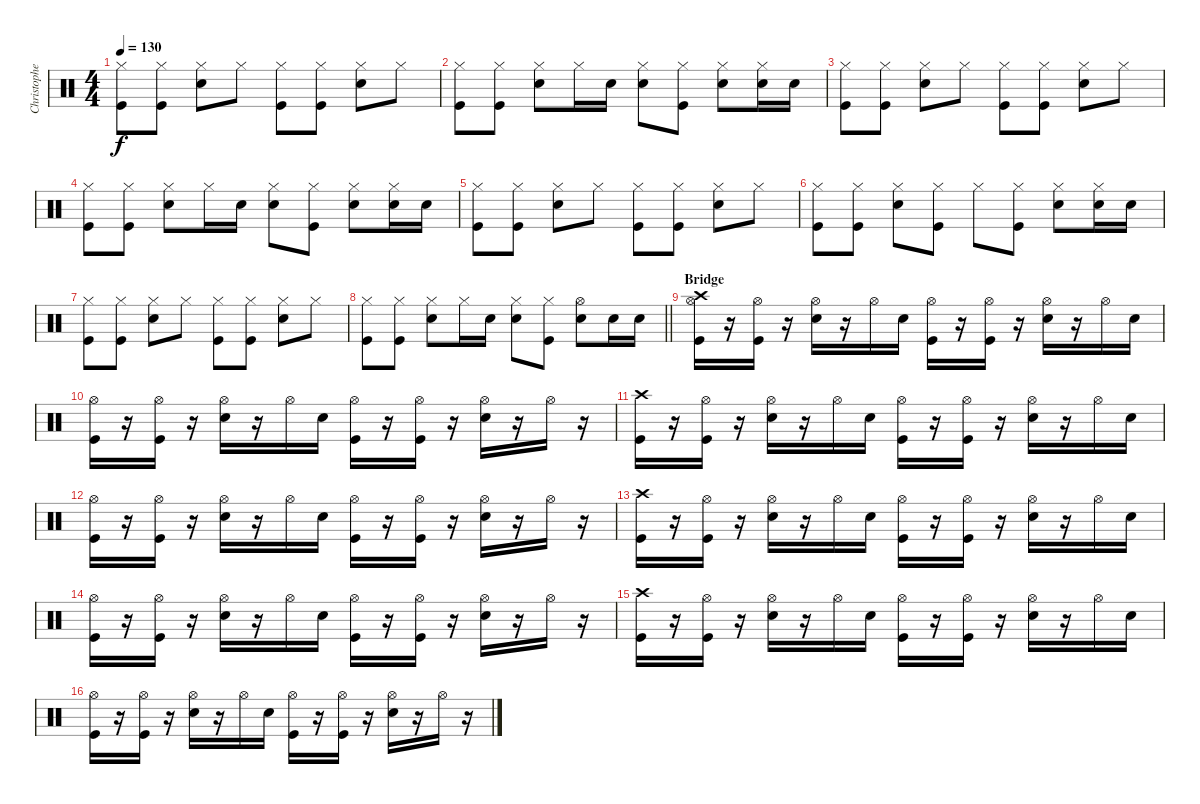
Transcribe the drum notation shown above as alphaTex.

\track ("Christopher - Drums" "Christophe") {instrument percussion}
\staff {score}
\articulation defaults
\ts (4 4)
\tempo 130
\clef neutral
\ks c
("Hi-Hat (closed)" "Kick (hit)").8{dy f} ("Hi-Hat (closed)" "Kick (hit)").8 ("Hi-Hat (closed)" "Snare (hit) 2").8 "Hi-Hat (closed)".8 ("Hi-Hat (closed)" "Kick (hit)").8 ("Hi-Hat (closed)" "Kick (hit)").8 ("Hi-Hat (closed)" "Snare (hit) 2").8 "Hi-Hat (closed)".8 |
("Hi-Hat (closed)" "Kick (hit)").8 ("Hi-Hat (closed)" "Kick (hit)").8 ("Hi-Hat (closed)" "Snare (hit) 2").8 "Hi-Hat (closed)".16 "Snare (hit) 2".16 ("Hi-Hat (closed)" "Snare (hit) 2").8 ("Hi-Hat (closed)" "Kick (hit)").8 ("Hi-Hat (closed)" "Snare (hit) 2").8 ("Hi-Hat (closed)" "Snare (hit) 2").16 "Snare (hit) 2".16 |
("Hi-Hat (closed)" "Kick (hit)").8 ("Hi-Hat (closed)" "Kick (hit)").8 ("Hi-Hat (closed)" "Snare (hit) 2").8 "Hi-Hat (closed)".8 ("Hi-Hat (closed)" "Kick (hit)").8 ("Hi-Hat (closed)" "Kick (hit)").8 ("Hi-Hat (closed)" "Snare (hit) 2").8 "Hi-Hat (closed)".8 |
("Hi-Hat (closed)" "Kick (hit)").8 ("Hi-Hat (closed)" "Kick (hit)").8 ("Hi-Hat (closed)" "Snare (hit) 2").8 "Hi-Hat (closed)".16 "Snare (hit) 2".16 ("Hi-Hat (closed)" "Snare (hit) 2").8 ("Hi-Hat (closed)" "Kick (hit)").8 ("Hi-Hat (closed)" "Snare (hit) 2").8 ("Hi-Hat (closed)" "Snare (hit) 2").16 "Snare (hit) 2".16 |
("Hi-Hat (closed)" "Kick (hit)").8 ("Hi-Hat (closed)" "Kick (hit)").8 ("Hi-Hat (closed)" "Snare (hit) 2").8 "Hi-Hat (closed)".8 ("Hi-Hat (closed)" "Kick (hit)").8 ("Hi-Hat (closed)" "Kick (hit)").8 ("Hi-Hat (closed)" "Snare (hit) 2").8 "Hi-Hat (closed)".8 |
("Hi-Hat (closed)" "Kick (hit)").8 ("Hi-Hat (closed)" "Kick (hit)").8 ("Hi-Hat (closed)" "Snare (hit) 2").8 ("Hi-Hat (closed)" "Kick (hit)").8 "Hi-Hat (closed)".8 ("Hi-Hat (closed)" "Kick (hit)").8 ("Hi-Hat (closed)" "Snare (hit) 2").8 ("Hi-Hat (closed)" "Snare (hit) 2").16 "Snare (hit) 2".16 |
("Hi-Hat (closed)" "Kick (hit)").8 ("Hi-Hat (closed)" "Kick (hit)").8 ("Hi-Hat (closed)" "Snare (hit) 2").8 "Hi-Hat (closed)".8 ("Hi-Hat (closed)" "Kick (hit)").8 ("Hi-Hat (closed)" "Kick (hit)").8 ("Hi-Hat (closed)" "Snare (hit) 2").8 "Hi-Hat (closed)".8 |
\barLineRight lightlight
("Hi-Hat (closed)" "Kick (hit)").8 ("Hi-Hat (closed)" "Kick (hit)").8 ("Hi-Hat (closed)" "Snare (hit) 2").8 "Hi-Hat (closed)".16 "Snare (hit) 2".16 ("Hi-Hat (closed)" "Snare (hit) 2").8 ("Hi-Hat (closed)" "Kick (hit)").8 ("Hi-Hat (open)" "Snare (hit) 2").8 "Snare (hit) 2".16 "Snare (hit) 2".16 |
\section ("" "Bridge")
("Crash high (hit)" "Hi-Hat (open)" "Kick (hit)").16 r.16 ("Hi-Hat (open)" "Kick (hit)").16 r.16 ("Hi-Hat (open)" "Snare (hit) 2").16 r.16 "Hi-Hat (open)".16 "Snare (hit) 2".16 ("Hi-Hat (open)" "Kick (hit)").16 r.16 ("Hi-Hat (open)" "Kick (hit)").16 r.16 ("Hi-Hat (open)" "Snare (hit) 2").16 r.16 "Hi-Hat (open)".16 "Snare (hit) 2".16 |
("Hi-Hat (open)" "Kick (hit)").16 r.16 ("Hi-Hat (open)" "Kick (hit)").16 r.16 ("Hi-Hat (open)" "Snare (hit) 2").16 r.16 "Hi-Hat (open)".16 "Snare (hit) 2".16 ("Hi-Hat (open)" "Kick (hit)").16 r.16 ("Hi-Hat (open)" "Kick (hit)").16 r.16 ("Hi-Hat (open)" "Snare (hit) 2").16 r.16 "Hi-Hat (open)".16 r.16 |
("Crash high (hit)" "Kick (hit)").16 r.16 ("Hi-Hat (open)" "Kick (hit)").16 r.16 ("Hi-Hat (open)" "Snare (hit) 2").16 r.16 "Hi-Hat (open)".16 "Snare (hit) 2".16 ("Hi-Hat (open)" "Kick (hit)").16 r.16 ("Hi-Hat (open)" "Kick (hit)").16 r.16 ("Hi-Hat (open)" "Snare (hit) 2").16 r.16 "Hi-Hat (open)".16 "Snare (hit) 2".16 |
("Hi-Hat (open)" "Kick (hit)").16 r.16 ("Hi-Hat (open)" "Kick (hit)").16 r.16 ("Hi-Hat (open)" "Snare (hit) 2").16 r.16 "Hi-Hat (open)".16 "Snare (hit) 2".16 ("Hi-Hat (open)" "Kick (hit)").16 r.16 ("Hi-Hat (open)" "Kick (hit)").16 r.16 ("Hi-Hat (open)" "Snare (hit) 2").16 r.16 "Hi-Hat (open)".16 r.16 |
("Crash high (hit)" "Kick (hit)").16 r.16 ("Hi-Hat (open)" "Kick (hit)").16 r.16 ("Hi-Hat (open)" "Snare (hit) 2").16 r.16 "Hi-Hat (open)".16 "Snare (hit) 2".16 ("Hi-Hat (open)" "Kick (hit)").16 r.16 ("Hi-Hat (open)" "Kick (hit)").16 r.16 ("Hi-Hat (open)" "Snare (hit) 2").16 r.16 "Hi-Hat (open)".16 "Snare (hit) 2".16 |
("Hi-Hat (open)" "Kick (hit)").16 r.16 ("Hi-Hat (open)" "Kick (hit)").16 r.16 ("Hi-Hat (open)" "Snare (hit) 2").16 r.16 "Hi-Hat (open)".16 "Snare (hit) 2".16 ("Hi-Hat (open)" "Kick (hit)").16 r.16 ("Hi-Hat (open)" "Kick (hit)").16 r.16 ("Hi-Hat (open)" "Snare (hit) 2").16 r.16 "Hi-Hat (open)".16 r.16 |
("Crash high (hit)" "Kick (hit)").16 r.16 ("Hi-Hat (open)" "Kick (hit)").16 r.16 ("Hi-Hat (open)" "Snare (hit) 2").16 r.16 "Hi-Hat (open)".16 "Snare (hit) 2".16 ("Hi-Hat (open)" "Kick (hit)").16 r.16 ("Hi-Hat (open)" "Kick (hit)").16 r.16 ("Hi-Hat (open)" "Snare (hit) 2").16 r.16 "Hi-Hat (open)".16 "Snare (hit) 2".16 |
("Hi-Hat (open)" "Kick (hit)").16 r.16 ("Hi-Hat (open)" "Kick (hit)").16 r.16 ("Hi-Hat (open)" "Snare (hit) 2").16 r.16 "Hi-Hat (open)".16 "Snare (hit) 2".16 ("Hi-Hat (open)" "Kick (hit)").16 r.16 ("Hi-Hat (open)" "Kick (hit)").16 r.16 ("Hi-Hat (open)" "Snare (hit) 2").16 r.16 "Hi-Hat (open)".16 r.16
